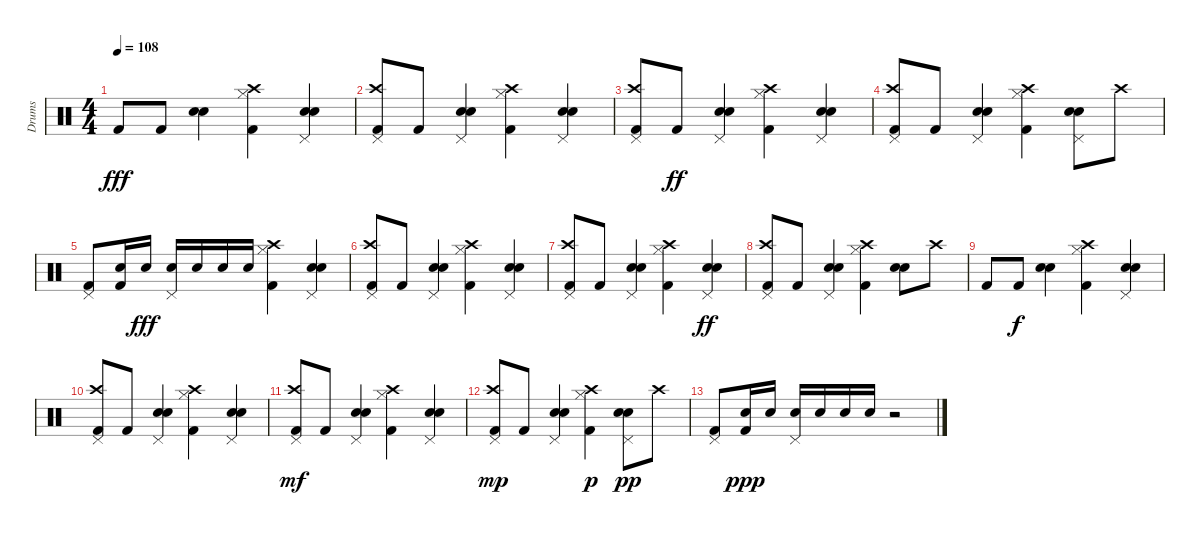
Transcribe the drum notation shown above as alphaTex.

\track ("Drums" "Drums") {instrument percussion}
\staff {score}
\articulation defaults
\ts (4 4)
\tempo 108
\clef neutral
\ks c "Kick (hit) 2".8{dy fff} "Kick (hit) 2".8
("Electric Snare (hit)" "Snare (hit) 2").4 ("Hi-Hat (closed)" "Kick (hit) 2" "Crash high (hit)").4 ("Electric Snare (hit)" "Pedal Hi-Hat (hit)" "Snare (hit) 2").4 |
("Pedal Hi-Hat (hit)" "Kick (hit) 2" "Crash high (hit)").8 "Kick (hit) 2".8 ("Electric Snare (hit)" "Pedal Hi-Hat (hit)" "Snare (hit) 2").4 ("Hi-Hat (closed)" "Kick (hit) 2" "Crash high (hit)").4 ("Electric Snare (hit)" "Pedal Hi-Hat (hit)" "Snare (hit) 2").4 |
("Pedal Hi-Hat (hit)" "Kick (hit) 2" "Crash high (hit)").8 "Kick (hit) 2".8{dy ff} ("Electric Snare (hit)" "Pedal Hi-Hat (hit)" "Snare (hit) 2").4 ("Hi-Hat (closed)" "Kick (hit) 2" "Crash high (hit)").4 ("Electric Snare (hit)" "Pedal Hi-Hat (hit)" "Snare (hit) 2").4 |
("Pedal Hi-Hat (hit)" "Kick (hit) 2" "Crash high (hit)").8 "Kick (hit) 2".8 ("Electric Snare (hit)" "Pedal Hi-Hat (hit)" "Snare (hit) 2").4 ("Hi-Hat (closed)" "Kick (hit) 2" "Crash high (hit)").4 ("Electric Snare (hit)" "Pedal Hi-Hat (hit)" "Snare (hit) 2").8 "Crash high (hit)".8 |
("Pedal Hi-Hat (hit)" "Kick (hit) 2").8 ("Kick (hit) 2" "Snare (hit) 2").16 "Snare (hit) 2".16{dy fff} ("Pedal Hi-Hat (hit)" "Electric Snare (hit)").16 "Electric Snare (hit)".16 "Electric Snare (hit)".16 "Electric Snare (hit)".16 ("Hi-Hat (closed)" "Kick (hit) 2" "Crash high (hit)").4 ("Electric Snare (hit)" "Pedal Hi-Hat (hit)" "Snare (hit) 2").4 |
("Pedal Hi-Hat (hit)" "Kick (hit) 2" "Crash high (hit)").8 "Kick (hit) 2".8 ("Electric Snare (hit)" "Pedal Hi-Hat (hit)" "Snare (hit) 2").4 ("Hi-Hat (closed)" "Kick (hit) 2" "Crash high (hit)").4 ("Electric Snare (hit)" "Pedal Hi-Hat (hit)" "Snare (hit) 2").4 |
("Pedal Hi-Hat (hit)" "Kick (hit) 2" "Crash high (hit)").8 "Kick (hit) 2".8 ("Electric Snare (hit)" "Pedal Hi-Hat (hit)" "Snare (hit) 2").4 ("Hi-Hat (closed)" "Kick (hit) 2" "Crash high (hit)").4 ("Electric Snare (hit)" "Pedal Hi-Hat (hit)" "Snare (hit) 2").4{dy ff} |
("Pedal Hi-Hat (hit)" "Kick (hit) 2" "Crash high (hit)").8 "Kick (hit) 2".8 ("Electric Snare (hit)" "Pedal Hi-Hat (hit)" "Snare (hit) 2").4 ("Hi-Hat (closed)" "Kick (hit) 2" "Crash high (hit)").4 ("Electric Snare (hit)" "Snare (hit) 2").8 "Crash high (hit)".8 |
"Kick (hit) 2".8 "Kick (hit) 2".8{dy f} ("Electric Snare (hit)" "Snare (hit) 2").4 ("Hi-Hat (closed)" "Kick (hit) 2" "Crash high (hit)").4 ("Electric Snare (hit)" "Pedal Hi-Hat (hit)" "Snare (hit) 2").4 |
("Pedal Hi-Hat (hit)" "Kick (hit) 2" "Crash high (hit)").8 "Kick (hit) 2".8 ("Electric Snare (hit)" "Pedal Hi-Hat (hit)" "Snare (hit) 2").4 ("Hi-Hat (closed)" "Kick (hit) 2" "Crash high (hit)").4 ("Electric Snare (hit)" "Pedal Hi-Hat (hit)" "Snare (hit) 2").4 |
("Pedal Hi-Hat (hit)" "Kick (hit) 2" "Crash high (hit)").8{dy mf} "Kick (hit) 2".8 ("Electric Snare (hit)" "Pedal Hi-Hat (hit)" "Snare (hit) 2").4 ("Hi-Hat (closed)" "Kick (hit) 2" "Crash high (hit)").4 ("Electric Snare (hit)" "Pedal Hi-Hat (hit)" "Snare (hit) 2").4 |
("Pedal Hi-Hat (hit)" "Kick (hit) 2" "Crash high (hit)").8{dy mp} "Kick (hit) 2".8 ("Electric Snare (hit)" "Pedal Hi-Hat (hit)" "Snare (hit) 2").4 ("Hi-Hat (closed)" "Kick (hit) 2" "Crash high (hit)").4{dy p} ("Electric Snare (hit)" "Pedal Hi-Hat (hit)" "Snare (hit) 2").8{dy pp} "Crash high (hit)".8 |
("Pedal Hi-Hat (hit)" "Kick (hit) 2").8 ("Kick (hit) 2" "Snare (hit) 2").16{dy ppp} "Snare (hit) 2".16 ("Pedal Hi-Hat (hit)" "Electric Snare (hit)").16 "Electric Snare (hit)".16 "Electric Snare (hit)".16 "Electric Snare (hit)".16 r.2
